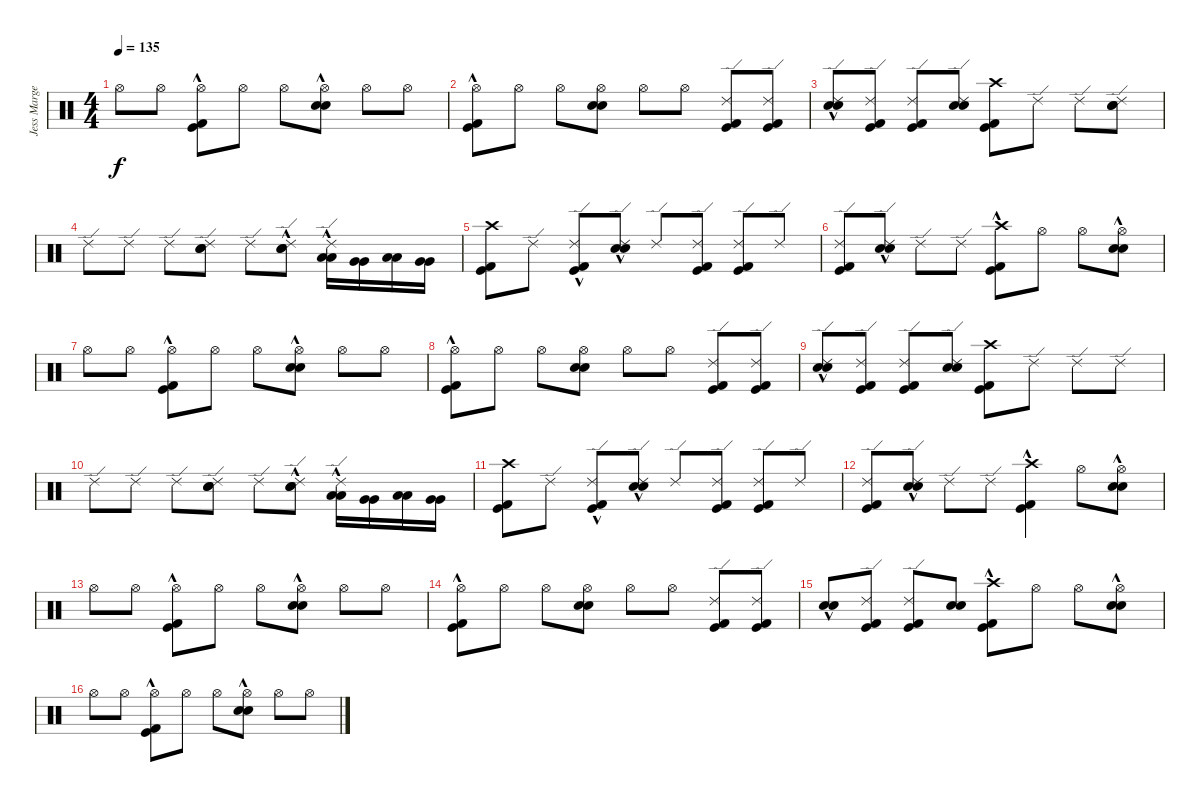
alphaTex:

\track ("Jess Margera" "Jess Marge") {instrument percussion}
\staff {score}
\articulation defaults
\ts (4 4)
\tempo 135
\clef neutral
\ks c "Hi-Hat (open)".8{dy f} "Hi-Hat (open)".8
("Kick (hit)"{hac} "Kick (hit) 2"{hac} "Hi-Hat (open)").8 "Hi-Hat (open)".8 "Hi-Hat (open)".8 ("Electric Snare (hit)"{hac} "Electric Snare (hit)"{hac} "Hi-Hat (open)").8 "Hi-Hat (open)".8 "Hi-Hat (open)".8 |
("Kick (hit)"{hac} "Kick (hit) 2"{hac} "Hi-Hat (open)").8 "Hi-Hat (open)".8 "Hi-Hat (open)".8 ("Electric Snare (hit)" "Electric Snare (hit)" "Hi-Hat (open)").8 "Hi-Hat (open)".8 "Hi-Hat (open)".8 ("Kick (hit)" "Kick (hit) 2" "Ride (edge) 2").8 ("Kick (hit)" "Kick (hit) 2" "Ride (edge) 2").8 |
("Electric Snare (hit)"{hac} "Electric Snare (hit)"{hac} "Ride (edge) 2").8 ("Kick (hit)" "Kick (hit) 2" "Ride (edge) 2").8 ("Kick (hit)" "Kick (hit) 2" "Ride (edge) 2").8 ("Electric Snare (hit)" "Electric Snare (hit)" "Ride (edge) 2").8 ("Kick (hit)" "Kick (hit) 2" "Crash high (hit)").8 "Ride (edge) 2".8 "Ride (edge) 2".8 ("Electric Snare (hit)" "Electric Snare (hit)" "Ride (edge) 2").8 |
"Ride (edge) 2".8 "Ride (edge) 2".8 "Ride (edge) 2".8 ("Electric Snare (hit)" "Electric Snare (hit)" "Ride (edge) 2").8 "Ride (edge) 2".8 ("Electric Snare (hit)"{hac} "Electric Snare (hit)"{hac} "Ride (edge) 2").8 ("Low Tom (hit)" "Low Tom (hit)" "Ride (edge) 2"{hac}).16 ("Very Low Tom (hit)" "Very Low Tom (hit)").16 ("Low Tom (hit)" "Low Tom (hit)").16 ("Very Low Tom (hit)" "Very Low Tom (hit)").16 |
("Kick (hit)" "Kick (hit) 2" "Crash high (hit)").8 "Ride (edge) 2".8 ("Kick (hit)"{hac} "Kick (hit) 2"{hac} "Ride (edge) 2").8 ("Electric Snare (hit)"{hac} "Electric Snare (hit)"{hac} "Ride (edge) 2").8 "Ride (edge) 2".8 ("Kick (hit)" "Kick (hit) 2" "Ride (edge) 2").8 ("Kick (hit)" "Kick (hit) 2" "Ride (edge) 2").8 "Ride (edge) 2".8 |
("Kick (hit)" "Kick (hit) 2" "Ride (edge) 2").8 ("Electric Snare (hit)"{hac} "Electric Snare (hit)"{hac} "Ride (edge) 2").8 "Ride (edge) 2".8 "Ride (edge) 2".8 ("Kick (hit)"{hac} "Kick (hit) 2"{hac} "Crash high (hit)").8 "Hi-Hat (open)".8 "Hi-Hat (open)".8 ("Electric Snare (hit)"{hac} "Electric Snare (hit)"{hac} "Hi-Hat (open)").8 |
"Hi-Hat (open)".8 "Hi-Hat (open)".8 ("Kick (hit)"{hac} "Kick (hit) 2"{hac} "Hi-Hat (open)").8 "Hi-Hat (open)".8 "Hi-Hat (open)".8 ("Electric Snare (hit)"{hac} "Electric Snare (hit)"{hac} "Hi-Hat (open)").8 "Hi-Hat (open)".8 "Hi-Hat (open)".8 |
("Kick (hit)"{hac} "Kick (hit) 2"{hac} "Hi-Hat (open)").8 "Hi-Hat (open)".8 "Hi-Hat (open)".8 ("Electric Snare (hit)" "Electric Snare (hit)" "Hi-Hat (open)").8 "Hi-Hat (open)".8 "Hi-Hat (open)".8 ("Kick (hit)" "Kick (hit) 2" "Ride (edge) 2").8 ("Kick (hit)" "Kick (hit) 2" "Ride (edge) 2").8 |
("Electric Snare (hit)"{hac} "Electric Snare (hit)"{hac} "Ride (edge) 2").8 ("Kick (hit)" "Kick (hit) 2" "Ride (edge) 2").8 ("Kick (hit)" "Kick (hit) 2" "Ride (edge) 2").8 ("Electric Snare (hit)" "Electric Snare (hit)" "Ride (edge) 2").8 ("Kick (hit)" "Kick (hit) 2" "Crash high (hit)").8 "Ride (edge) 2".8 "Ride (edge) 2".8 "Ride (edge) 2".8 |
"Ride (edge) 2".8 "Ride (edge) 2".8 "Ride (edge) 2".8 ("Electric Snare (hit)" "Electric Snare (hit)" "Ride (edge) 2").8 "Ride (edge) 2".8 ("Electric Snare (hit)"{hac} "Electric Snare (hit)"{hac} "Ride (edge) 2").8 ("Low Tom (hit)" "Low Tom (hit)" "Ride (edge) 2"{hac}).16 ("Very Low Tom (hit)" "Very Low Tom (hit)").16 ("Low Tom (hit)" "Low Tom (hit)").16 ("Very Low Tom (hit)" "Very Low Tom (hit)").16 |
("Kick (hit)" "Kick (hit) 2" "Crash high (hit)").8 "Ride (edge) 2".8 ("Kick (hit)"{hac} "Kick (hit) 2"{hac} "Ride (edge) 2").8 ("Electric Snare (hit)"{hac} "Electric Snare (hit)"{hac} "Ride (edge) 2").8 "Ride (edge) 2".8 ("Kick (hit)" "Kick (hit) 2" "Ride (edge) 2").8 ("Kick (hit)" "Kick (hit) 2" "Ride (edge) 2").8 "Ride (edge) 2".8 |
("Kick (hit)" "Kick (hit) 2" "Ride (edge) 2").8 ("Electric Snare (hit)"{hac} "Electric Snare (hit)"{hac} "Ride (edge) 2").8 "Ride (edge) 2".8 "Ride (edge) 2".8 ("Kick (hit)"{hac} "Kick (hit) 2"{hac} "Crash high (hit)").4 "Hi-Hat (open)".8 ("Electric Snare (hit)"{hac} "Electric Snare (hit)"{hac} "Hi-Hat (open)").8 |
"Hi-Hat (open)".8 "Hi-Hat (open)".8 ("Kick (hit)"{hac} "Kick (hit) 2"{hac} "Hi-Hat (open)").8 "Hi-Hat (open)".8 "Hi-Hat (open)".8 ("Electric Snare (hit)"{hac} "Electric Snare (hit)"{hac} "Hi-Hat (open)").8 "Hi-Hat (open)".8 "Hi-Hat (open)".8 |
("Kick (hit)"{hac} "Kick (hit) 2"{hac} "Hi-Hat (open)").8 "Hi-Hat (open)".8 "Hi-Hat (open)".8 ("Electric Snare (hit)" "Electric Snare (hit)" "Hi-Hat (open)").8 "Hi-Hat (open)".8 "Hi-Hat (open)".8 ("Kick (hit)" "Kick (hit) 2" "Ride (edge) 2").8 ("Kick (hit)" "Kick (hit) 2" "Ride (edge) 2").8 |
("Electric Snare (hit)"{hac} "Electric Snare (hit)"{hac}).8 ("Kick (hit)" "Kick (hit) 2" "Ride (edge) 2").8 ("Kick (hit)" "Kick (hit) 2" "Ride (edge) 2").8 ("Electric Snare (hit)" "Electric Snare (hit)").8 ("Kick (hit)"{hac} "Kick (hit) 2"{hac} "Crash high (hit)").8 "Hi-Hat (open)".8 "Hi-Hat (open)".8 ("Electric Snare (hit)"{hac} "Electric Snare (hit)"{hac} "Hi-Hat (open)").8 |
"Hi-Hat (open)".8 "Hi-Hat (open)".8 ("Kick (hit)"{hac} "Kick (hit) 2"{hac} "Hi-Hat (open)").8 "Hi-Hat (open)".8 "Hi-Hat (open)".8 ("Electric Snare (hit)"{hac} "Electric Snare (hit)"{hac} "Hi-Hat (open)").8 "Hi-Hat (open)".8 "Hi-Hat (open)".8
